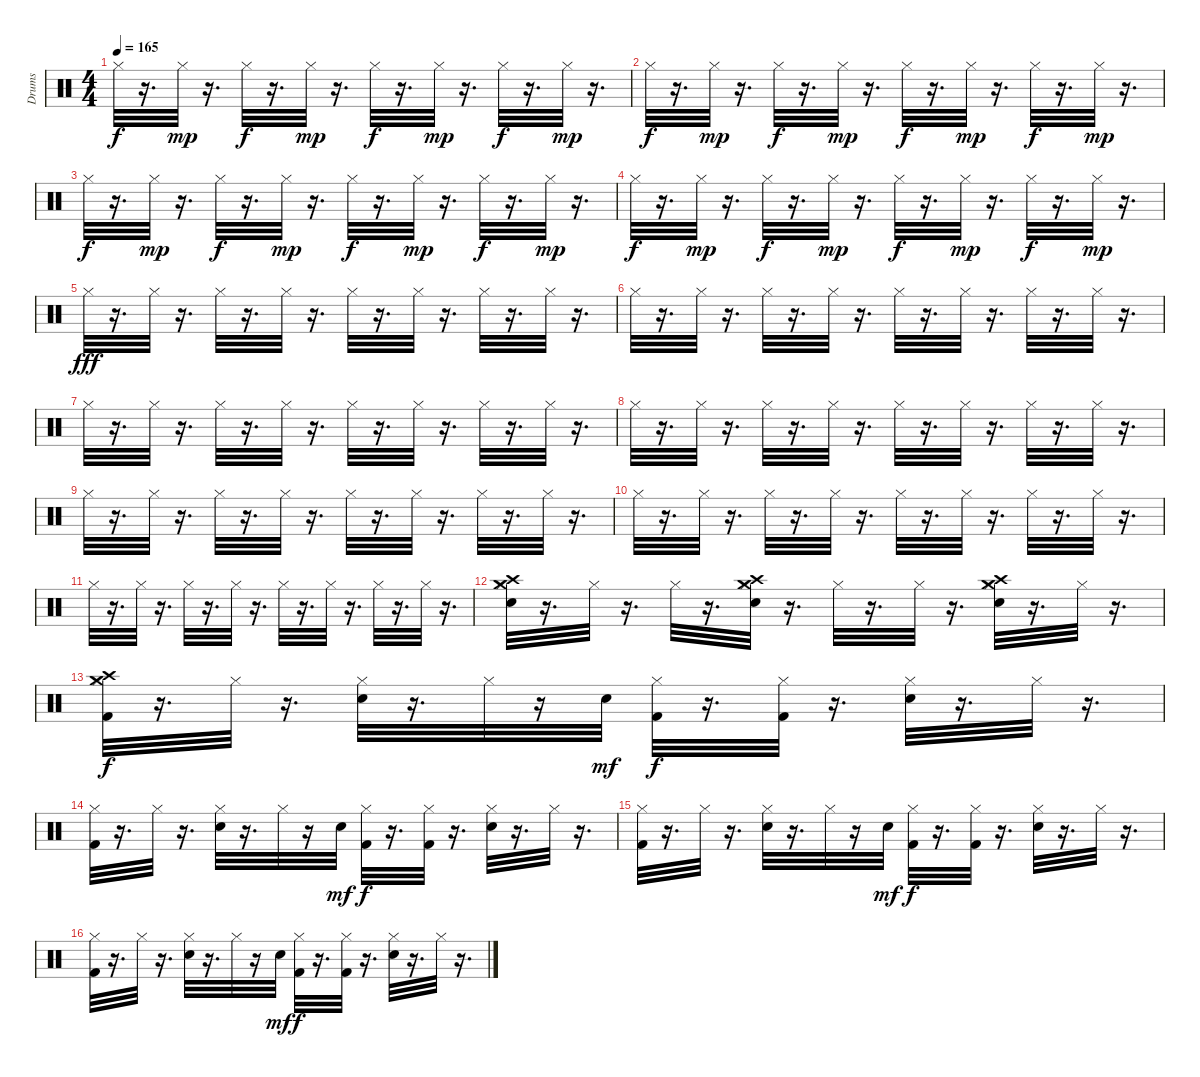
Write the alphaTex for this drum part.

\track ("Drums" "Drums") {instrument percussion}
\staff {score}
\articulation defaults
\ts (4 4)
\tempo 165
\clef neutral
\ks c "Hi-Hat (closed)".32{dy f}
r.16{d} "Hi-Hat (closed)".32{dy mp} r.16{d} "Hi-Hat (closed)".32{dy f} r.16{d} "Hi-Hat (closed)".32{dy mp} r.16{d} "Hi-Hat (closed)".32{dy f} r.16{d} "Hi-Hat (closed)".32{dy mp} r.16{d} "Hi-Hat (closed)".32{dy f} r.16{d} "Hi-Hat (closed)".32{dy mp} r.16{d} |
"Hi-Hat (closed)".32{dy f} r.16{d} "Hi-Hat (closed)".32{dy mp} r.16{d} "Hi-Hat (closed)".32{dy f} r.16{d} "Hi-Hat (closed)".32{dy mp} r.16{d} "Hi-Hat (closed)".32{dy f} r.16{d} "Hi-Hat (closed)".32{dy mp} r.16{d} "Hi-Hat (closed)".32{dy f} r.16{d} "Hi-Hat (closed)".32{dy mp} r.16{d} |
"Hi-Hat (closed)".32{dy f} r.16{d} "Hi-Hat (closed)".32{dy mp} r.16{d} "Hi-Hat (closed)".32{dy f} r.16{d} "Hi-Hat (closed)".32{dy mp} r.16{d} "Hi-Hat (closed)".32{dy f} r.16{d} "Hi-Hat (closed)".32{dy mp} r.16{d} "Hi-Hat (closed)".32{dy f} r.16{d} "Hi-Hat (closed)".32{dy mp} r.16{d} |
"Hi-Hat (closed)".32{dy f} r.16{d} "Hi-Hat (closed)".32{dy mp} r.16{d} "Hi-Hat (closed)".32{dy f} r.16{d} "Hi-Hat (closed)".32{dy mp} r.16{d} "Hi-Hat (closed)".32{dy f} r.16{d} "Hi-Hat (closed)".32{dy mp} r.16{d} "Hi-Hat (closed)".32{dy f} r.16{d} "Hi-Hat (closed)".32{dy mp} r.16{d} |
"Hi-Hat (closed)".32{dy fff} r.16{d} "Hi-Hat (closed)".32 r.16{d} "Hi-Hat (closed)".32 r.16{d} "Hi-Hat (closed)".32 r.16{d} "Hi-Hat (closed)".32 r.16{d} "Hi-Hat (closed)".32 r.16{d} "Hi-Hat (closed)".32 r.16{d} "Hi-Hat (closed)".32 r.16{d} |
"Hi-Hat (closed)".32 r.16{d} "Hi-Hat (closed)".32 r.16{d} "Hi-Hat (closed)".32 r.16{d} "Hi-Hat (closed)".32 r.16{d} "Hi-Hat (closed)".32 r.16{d} "Hi-Hat (closed)".32 r.16{d} "Hi-Hat (closed)".32 r.16{d} "Hi-Hat (closed)".32 r.16{d} |
"Hi-Hat (closed)".32 r.16{d} "Hi-Hat (closed)".32 r.16{d} "Hi-Hat (closed)".32 r.16{d} "Hi-Hat (closed)".32 r.16{d} "Hi-Hat (closed)".32 r.16{d} "Hi-Hat (closed)".32 r.16{d} "Hi-Hat (closed)".32 r.16{d} "Hi-Hat (closed)".32 r.16{d} |
"Hi-Hat (closed)".32 r.16{d} "Hi-Hat (closed)".32 r.16{d} "Hi-Hat (closed)".32 r.16{d} "Hi-Hat (closed)".32 r.16{d} "Hi-Hat (closed)".32 r.16{d} "Hi-Hat (closed)".32 r.16{d} "Hi-Hat (closed)".32 r.16{d} "Hi-Hat (closed)".32 r.16{d} |
"Hi-Hat (closed)".32 r.16{d} "Hi-Hat (closed)".32 r.16{d} "Hi-Hat (closed)".32 r.16{d} "Hi-Hat (closed)".32 r.16{d} "Hi-Hat (closed)".32 r.16{d} "Hi-Hat (closed)".32 r.16{d} "Hi-Hat (closed)".32 r.16{d} "Hi-Hat (closed)".32 r.16{d} |
"Hi-Hat (closed)".32 r.16{d} "Hi-Hat (closed)".32 r.16{d} "Hi-Hat (closed)".32 r.16{d} "Hi-Hat (closed)".32 r.16{d} "Hi-Hat (closed)".32 r.16{d} "Hi-Hat (closed)".32 r.16{d} "Hi-Hat (closed)".32 r.16{d} "Hi-Hat (closed)".32 r.16{d} |
"Hi-Hat (closed)".32 r.16{d} "Hi-Hat (closed)".32 r.16{d} "Hi-Hat (closed)".32 r.16{d} "Hi-Hat (closed)".32 r.16{d} "Hi-Hat (closed)".32 r.16{d} "Hi-Hat (closed)".32 r.16{d} "Hi-Hat (closed)".32 r.16{d} "Hi-Hat (closed)".32 r.16{d} |
("Electric Snare (hit)" "Crash high (hit)" "Crash medium (hit)" "Hi-Hat (closed)").32 r.16{d} "Hi-Hat (closed)".32 r.16{d} "Hi-Hat (closed)".32 r.16{d} ("Crash high (hit)" "Crash medium (hit)" "Hi-Hat (closed)" "Electric Snare (hit)").32 r.16{d} "Hi-Hat (closed)".32 r.16{d} "Hi-Hat (closed)".32 r.16{d} ("Electric Snare (hit)" "Crash high (hit)" "Crash medium (hit)" "Hi-Hat (closed)").32 r.16{d} "Hi-Hat (closed)".32 r.16{d} |
("Hi-Hat (closed)" "Kick (hit) 2" "Crash medium (hit)" "Crash high (hit)").32{dy f} r.16{d} "Hi-Hat (closed)".32 r.16{d} ("Hi-Hat (closed)" "Electric Snare (hit)").32 r.16{d} "Hi-Hat (closed)".32 r.16 "Electric Snare (hit)".32{dy mf} ("Kick (hit) 2" "Hi-Hat (closed)").32{dy f} r.16{d} ("Hi-Hat (closed)" "Kick (hit) 2").32 r.16{d} ("Electric Snare (hit)" "Hi-Hat (closed)").32 r.16{d} "Hi-Hat (closed)".32 r.16{d} |
("Hi-Hat (closed)" "Kick (hit) 2").32 r.16{d} "Hi-Hat (closed)".32 r.16{d} ("Hi-Hat (closed)" "Electric Snare (hit)").32 r.16{d} "Hi-Hat (closed)".32 r.16 "Electric Snare (hit)".32{dy mf} ("Kick (hit) 2" "Hi-Hat (closed)").32{dy f} r.16{d} ("Hi-Hat (closed)" "Kick (hit) 2").32 r.16{d} ("Electric Snare (hit)" "Hi-Hat (closed)").32 r.16{d} "Hi-Hat (closed)".32 r.16{d} |
("Hi-Hat (closed)" "Kick (hit) 2").32 r.16{d} "Hi-Hat (closed)".32 r.16{d} ("Hi-Hat (closed)" "Electric Snare (hit)").32 r.16{d} "Hi-Hat (closed)".32 r.16 "Electric Snare (hit)".32{dy mf} ("Kick (hit) 2" "Hi-Hat (closed)").32{dy f} r.16{d} ("Hi-Hat (closed)" "Kick (hit) 2").32 r.16{d} ("Electric Snare (hit)" "Hi-Hat (closed)").32 r.16{d} "Hi-Hat (closed)".32 r.16{d} |
("Hi-Hat (closed)" "Kick (hit) 2").32 r.16{d} "Hi-Hat (closed)".32 r.16{d} ("Hi-Hat (closed)" "Electric Snare (hit)").32 r.16{d} "Hi-Hat (closed)".32 r.16 "Electric Snare (hit)".32{dy mf} ("Kick (hit) 2" "Hi-Hat (closed)").32{dy f} r.16{d} ("Hi-Hat (closed)" "Kick (hit) 2").32 r.16{d} ("Electric Snare (hit)" "Hi-Hat (closed)").32 r.16{d} "Hi-Hat (closed)".32 r.16{d}
